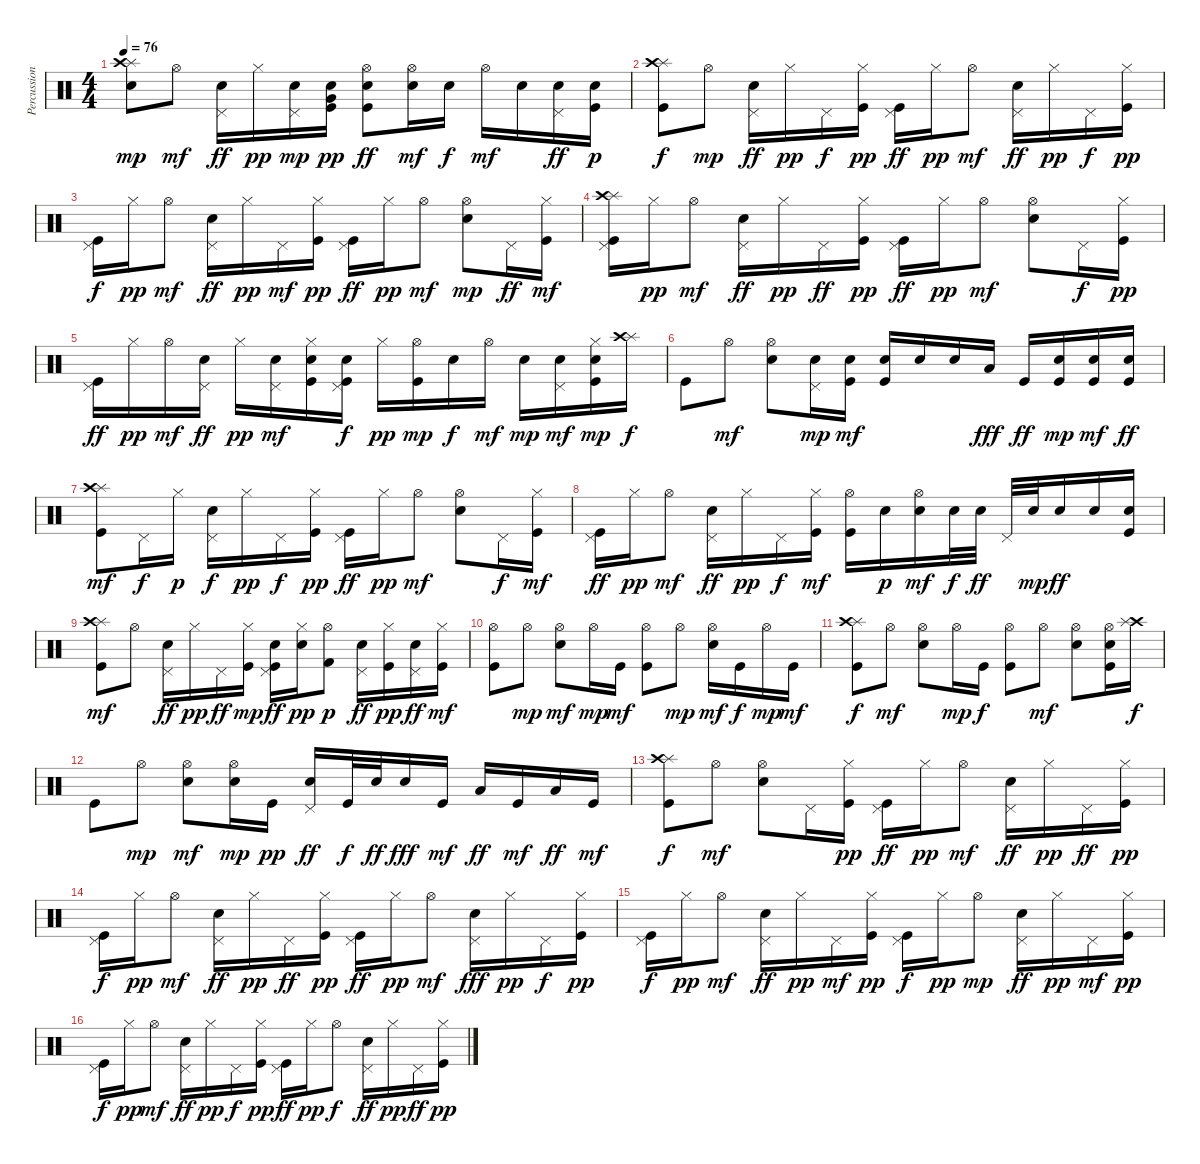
\track ("Percussion" "Percussion") {instrument percussion}
\staff {score}
\articulation defaults
\ts (4 4)
\tempo 76
\clef neutral
\ks c
("Splash (hit)" "Crash high (hit)" "Snare (hit) 2").8{dy mp} "Hi-Hat (open)".8{dy mf} ("Pedal Hi-Hat (hit)" "Snare (hit) 2").16{dy ff} "Hi-Hat (closed)".16{dy pp} ("Pedal Hi-Hat (hit)" "Snare (hit) 2").16{dy mp} ("Very Low Tom (hit)" "Snare (hit) 2" "Kick (hit)").16{dy pp} ("Hi-Hat (open)" "Snare (hit) 2" "Kick (hit)").8{dy ff} ("Hi-Hat (open)" "Snare (hit) 2").16{dy mf} "Snare (hit) 2".16{dy f} "Hi-Hat (open)".16{dy mf} "Snare (hit) 2".16 ("Pedal Hi-Hat (hit)" "Snare (hit) 2").16{dy ff} ("Snare (hit) 2" "Kick (hit)").16{dy p} |
("Splash (hit)" "Crash high (hit)" "Kick (hit)").8{dy f} "Hi-Hat (open)".8{dy mp} ("Pedal Hi-Hat (hit)" "Snare (hit) 2").16{dy ff} "Hi-Hat (closed)".16{dy pp} "Pedal Hi-Hat (hit)".16{dy f} ("Hi-Hat (closed)" "Kick (hit)").16{dy pp} ("Pedal Hi-Hat (hit)" "Kick (hit)").16{dy ff} "Hi-Hat (closed)".16{dy pp} "Hi-Hat (open)".8{dy mf} ("Pedal Hi-Hat (hit)" "Snare (hit) 2").16{dy ff} "Hi-Hat (closed)".16{dy pp} "Pedal Hi-Hat (hit)".16{dy f} ("Hi-Hat (closed)" "Kick (hit)").16{dy pp} |
("Pedal Hi-Hat (hit)" "Kick (hit)").16{dy f} "Hi-Hat (closed)".16{dy pp} "Hi-Hat (open)".8{dy mf} ("Pedal Hi-Hat (hit)" "Snare (hit) 2").16{dy ff} "Hi-Hat (closed)".16{dy pp} "Pedal Hi-Hat (hit)".16{dy mf} ("Hi-Hat (closed)" "Kick (hit)").16{dy pp} ("Pedal Hi-Hat (hit)" "Kick (hit)").16{dy ff} "Hi-Hat (closed)".16{dy pp} "Hi-Hat (open)".8{dy mf} ("Hi-Hat (open)" "Snare (hit) 2").8{dy mp} "Pedal Hi-Hat (hit)".16{dy ff} ("Hi-Hat (closed)" "Kick (hit)").16{dy mf} |
("Splash (hit)" "Crash high (hit)" "Pedal Hi-Hat (hit)" "Kick (hit)").16 "Hi-Hat (closed)".16{dy pp} "Hi-Hat (open)".8{dy mf} ("Pedal Hi-Hat (hit)" "Snare (hit) 2").16{dy ff} "Hi-Hat (closed)".16{dy pp} "Pedal Hi-Hat (hit)".16{dy ff} ("Kick (hit)" "Hi-Hat (closed)").16{dy pp} ("Pedal Hi-Hat (hit)" "Kick (hit)").16{dy ff} "Hi-Hat (closed)".16{dy pp} "Hi-Hat (open)".8{dy mf} ("Snare (hit) 2" "Hi-Hat (open)").8 "Pedal Hi-Hat (hit)".16{dy f} ("Hi-Hat (closed)" "Kick (hit)").16{dy pp} |
("Pedal Hi-Hat (hit)" "Kick (hit)").16{dy ff} "Hi-Hat (closed)".16{dy pp} "Hi-Hat (open)".16{dy mf} ("Pedal Hi-Hat (hit)" "Snare (hit) 2").16{dy ff} "Hi-Hat (closed)".16{dy pp} ("Pedal Hi-Hat (hit)" "Snare (hit) 2").16{dy mf} ("Hi-Hat (closed)" "Snare (hit) 2" "Kick (hit)").16 ("Pedal Hi-Hat (hit)" "Snare (hit) 2" "Kick (hit)").16{dy f} "Hi-Hat (closed)".16{dy pp} ("Hi-Hat (open)" "Kick (hit)").16{dy mp} "Snare (hit) 2".16{dy f} "Hi-Hat (open)".16{dy mf} "Snare (hit) 2".16{dy mp} ("Pedal Hi-Hat (hit)" "Snare (hit) 2").16{dy mf} ("Hi-Hat (closed)" "Snare (hit) 2" "Kick (hit)").16{dy mp} ("Splash (hit)" "Crash high (hit)").16{dy f} |
"Kick (hit)".8 "Hi-Hat (open)".8{dy mf} ("Hi-Hat (open)" "Snare (hit) 2").8 ("Pedal Hi-Hat (hit)" "Snare (hit) 2").16{dy mp} ("Snare (hit) 2" "Kick (hit)").16{dy mf} ("Snare (hit) 2" "Kick (hit)").16 "Snare (hit) 2".16 "Snare (hit) 2".16 "Low Tom (hit)".16{dy fff} "Kick (hit)".16{dy ff} ("Snare (hit) 2" "Kick (hit)").16{dy mp} ("Snare (hit) 2" "Kick (hit)").16{dy mf} ("Snare (hit) 2" "Kick (hit)").16{dy ff} |
("Splash (hit)" "Crash high (hit)" "Kick (hit)").8{dy mf} "Pedal Hi-Hat (hit)".16{dy f} "Hi-Hat (closed)".16{dy p} ("Pedal Hi-Hat (hit)" "Snare (hit) 2").16{dy f} "Hi-Hat (closed)".16{dy pp} "Pedal Hi-Hat (hit)".16{dy f} ("Hi-Hat (closed)" "Kick (hit)").16{dy pp} ("Pedal Hi-Hat (hit)" "Kick (hit)").16{dy ff} "Hi-Hat (closed)".16{dy pp} "Hi-Hat (open)".8{dy mf} ("Hi-Hat (open)" "Snare (hit) 2").8 "Pedal Hi-Hat (hit)".16{dy f} ("Hi-Hat (closed)" "Kick (hit)").16{dy mf} |
("Kick (hit)" "Pedal Hi-Hat (hit)").16{dy ff} "Hi-Hat (closed)".16{dy pp} "Hi-Hat (open)".8{dy mf} ("Pedal Hi-Hat (hit)" "Snare (hit) 2").16{dy ff} "Hi-Hat (closed)".16{dy pp} "Pedal Hi-Hat (hit)".16{dy f} ("Hi-Hat (closed)" "Kick (hit)").16{dy mf} ("Hi-Hat (open)" "Kick (hit)").16 "Snare (hit) 2".16{dy p} ("Hi-Hat (open)" "Snare (hit) 2").16{dy mf} "Snare (hit) 2".32{dy f} "Snare (hit) 2".32{dy ff} "Pedal Hi-Hat (hit)".32 "Snare (hit) 2".32{dy mp} "Snare (hit) 2".16{dy ff} "Snare (hit) 2".16 ("Snare (hit) 2" "Kick (hit)").16 |
("Splash (hit)" "Crash high (hit)" "Kick (hit)").8{dy mf} "Hi-Hat (open)".8 ("Pedal Hi-Hat (hit)" "Snare (hit) 2").16{dy ff} "Hi-Hat (closed)".16{dy pp} "Pedal Hi-Hat (hit)".16{dy ff} ("Hi-Hat (closed)" "Kick (hit)").16{dy mp} ("Pedal Hi-Hat (hit)" "Snare (hit) 2" "Kick (hit)").16{dy ff} ("Hi-Hat (closed)" "Snare (hit) 2").16{dy pp} ("Hi-Hat (open)" "Kick (hit) 2").8{dy p} ("Pedal Hi-Hat (hit)" "Snare (hit) 2").16{dy ff} ("Hi-Hat (closed)" "Kick (hit)").16{dy pp} ("Pedal Hi-Hat (hit)" "Snare (hit) 2").16{dy ff} ("Hi-Hat (closed)" "Kick (hit)").16{dy mf} |
("Hi-Hat (open)" "Kick (hit)").8 "Hi-Hat (open)".8{dy mp} ("Hi-Hat (open)" "Snare (hit) 2").8{dy mf} "Hi-Hat (open)".16{dy mp} "Kick (hit)".16{dy mf} ("Hi-Hat (open)" "Kick (hit)").8 "Hi-Hat (open)".8{dy mp} ("Hi-Hat (open)" "Snare (hit) 2").16{dy mf} "Kick (hit)".16{dy f} "Hi-Hat (open)".16{dy mp} "Kick (hit)".16{dy mf} |
("Splash (hit)" "Crash high (hit)" "Kick (hit)").8{dy f} "Hi-Hat (open)".8{dy mf} ("Hi-Hat (open)" "Snare (hit) 2").8 "Hi-Hat (open)".16{dy mp} "Kick (hit)".16{dy f} ("Hi-Hat (open)" "Kick (hit)").8 "Hi-Hat (open)".8{dy mf} ("Snare (hit) 2" "Hi-Hat (open)").8 ("Hi-Hat (open)" "Snare (hit) 2" "Kick (hit)").16 ("Crash high (hit)" "Splash (hit)").16{dy f} |
"Kick (hit)".8 "Hi-Hat (open)".8{dy mp} ("Hi-Hat (open)" "Snare (hit) 2").8{dy mf} ("Hi-Hat (open)" "Snare (hit) 2").16{dy mp} "Kick (hit)".16{dy pp} ("Snare (hit) 2" "Pedal Hi-Hat (hit)").16{dy ff} "Kick (hit)".32{dy f} "Snare (hit) 2".32{dy ff} "Snare (hit) 2".16{dy fff} "Kick (hit)".16{dy mf} "Low Tom (hit)".16{dy ff} "Kick (hit)".16{dy mf} "Low Tom (hit)".16{dy ff} "Kick (hit)".16{dy mf} |
("Splash (hit)" "Crash high (hit)" "Kick (hit)").8{dy f} "Hi-Hat (open)".8{dy mf} ("Hi-Hat (open)" "Snare (hit) 2").8 "Pedal Hi-Hat (hit)".16 ("Hi-Hat (closed)" "Kick (hit)").16{dy pp} ("Pedal Hi-Hat (hit)" "Kick (hit)").16{dy ff} "Hi-Hat (closed)".16{dy pp} "Hi-Hat (open)".8{dy mf} ("Pedal Hi-Hat (hit)" "Snare (hit) 2").16{dy ff} "Hi-Hat (closed)".16{dy pp} "Pedal Hi-Hat (hit)".16{dy ff} ("Hi-Hat (closed)" "Kick (hit)").16{dy pp} |
("Pedal Hi-Hat (hit)" "Kick (hit)").16{dy f} "Hi-Hat (closed)".16{dy pp} "Hi-Hat (open)".8{dy mf} ("Pedal Hi-Hat (hit)" "Snare (hit) 2").16{dy ff} "Hi-Hat (closed)".16{dy pp} "Pedal Hi-Hat (hit)".16{dy ff} ("Hi-Hat (closed)" "Kick (hit)").16{dy pp} ("Pedal Hi-Hat (hit)" "Kick (hit)").16{dy ff} "Hi-Hat (closed)".16{dy pp} "Hi-Hat (open)".8{dy mf} ("Pedal Hi-Hat (hit)" "Snare (hit) 2").16{dy fff} "Hi-Hat (closed)".16{dy pp} "Pedal Hi-Hat (hit)".16{dy f} ("Hi-Hat (closed)" "Kick (hit)").16{dy pp} |
("Pedal Hi-Hat (hit)" "Kick (hit)").16{dy f} "Hi-Hat (closed)".16{dy pp} "Hi-Hat (open)".8{dy mf} ("Pedal Hi-Hat (hit)" "Snare (hit) 2").16{dy ff} "Hi-Hat (closed)".16{dy pp} "Pedal Hi-Hat (hit)".16{dy mf} ("Hi-Hat (closed)" "Kick (hit)").16{dy pp} ("Pedal Hi-Hat (hit)" "Kick (hit)").16{dy f} "Hi-Hat (closed)".16{dy pp} "Hi-Hat (open)".8{dy mp} ("Pedal Hi-Hat (hit)" "Snare (hit) 2").16{dy ff} "Hi-Hat (closed)".16{dy pp} "Pedal Hi-Hat (hit)".16{dy mf} ("Hi-Hat (closed)" "Kick (hit)").16{dy pp} |
("Pedal Hi-Hat (hit)" "Kick (hit)").16{dy f} "Hi-Hat (closed)".16{dy pp} "Hi-Hat (open)".8{dy mf} ("Pedal Hi-Hat (hit)" "Snare (hit) 2").16{dy ff} "Hi-Hat (closed)".16{dy pp} "Pedal Hi-Hat (hit)".16{dy f} ("Hi-Hat (closed)" "Kick (hit)").16{dy pp} ("Pedal Hi-Hat (hit)" "Kick (hit)").16{dy ff} "Hi-Hat (closed)".16{dy pp} "Hi-Hat (open)".8{dy f} ("Pedal Hi-Hat (hit)" "Snare (hit) 2").16{dy ff} "Hi-Hat (closed)".16{dy pp} "Pedal Hi-Hat (hit)".16{dy ff} ("Hi-Hat (closed)" "Kick (hit)").16{dy pp}
